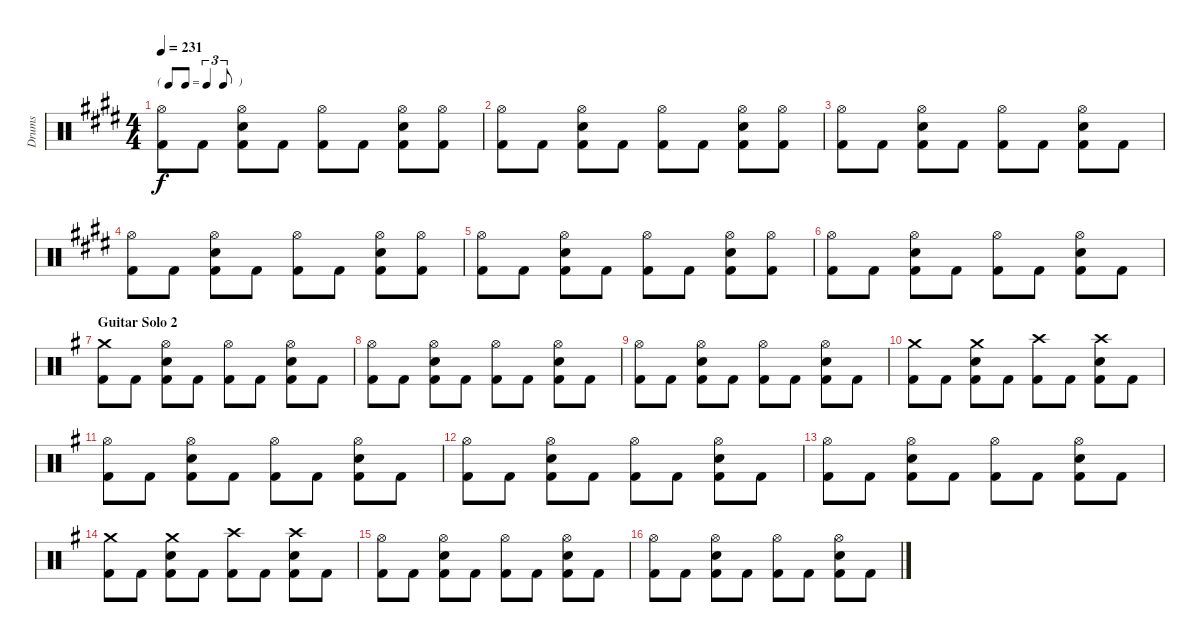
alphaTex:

\track ("Drums" "Drums") {instrument percussion}
\staff {score}
\articulation defaults
\ts (4 4)
\tf triplet8th
\tempo 231
\clef neutral
\ks c#minor
("Hi-Hat (open)" "Kick (hit) 2").8{dy f} "Kick (hit) 2".8 ("Hi-Hat (open)" "Electric Snare (hit)" "Kick (hit) 2").8 "Kick (hit) 2".8 ("Hi-Hat (open)" "Kick (hit) 2").8 "Kick (hit) 2".8 ("Hi-Hat (open)" "Electric Snare (hit)" "Kick (hit) 2").8 ("Hi-Hat (open)" "Kick (hit) 2").8 |
("Hi-Hat (open)" "Kick (hit) 2").8 "Kick (hit) 2".8 ("Hi-Hat (open)" "Electric Snare (hit)" "Kick (hit) 2").8 "Kick (hit) 2".8 ("Hi-Hat (open)" "Kick (hit) 2").8 "Kick (hit) 2".8 ("Hi-Hat (open)" "Electric Snare (hit)" "Kick (hit) 2").8 ("Hi-Hat (open)" "Kick (hit) 2").8 |
("Hi-Hat (open)" "Kick (hit) 2").8 "Kick (hit) 2".8 ("Hi-Hat (open)" "Electric Snare (hit)" "Kick (hit) 2").8 "Kick (hit) 2".8 ("Hi-Hat (open)" "Kick (hit) 2").8 "Kick (hit) 2".8 ("Hi-Hat (open)" "Electric Snare (hit)" "Kick (hit) 2").8 "Kick (hit) 2".8 |
("Hi-Hat (open)" "Kick (hit) 2").8 "Kick (hit) 2".8 ("Hi-Hat (open)" "Electric Snare (hit)" "Kick (hit) 2").8 "Kick (hit) 2".8 ("Hi-Hat (open)" "Kick (hit) 2").8 "Kick (hit) 2".8 ("Hi-Hat (open)" "Electric Snare (hit)" "Kick (hit) 2").8 ("Hi-Hat (open)" "Kick (hit) 2").8 |
("Hi-Hat (open)" "Kick (hit) 2").8 "Kick (hit) 2".8 ("Hi-Hat (open)" "Electric Snare (hit)" "Kick (hit) 2").8 "Kick (hit) 2".8 ("Hi-Hat (open)" "Kick (hit) 2").8 "Kick (hit) 2".8 ("Hi-Hat (open)" "Electric Snare (hit)" "Kick (hit) 2").8 ("Hi-Hat (open)" "Kick (hit) 2").8 |
("Hi-Hat (open)" "Kick (hit) 2").8 "Kick (hit) 2".8 ("Hi-Hat (open)" "Electric Snare (hit)" "Kick (hit) 2").8 "Kick (hit) 2".8 ("Hi-Hat (open)" "Kick (hit) 2").8 "Kick (hit) 2".8 ("Hi-Hat (open)" "Electric Snare (hit)" "Kick (hit) 2").8 "Kick (hit) 2".8 |
\section ("" "Guitar Solo 2")
\ks eminor
("Crash medium (hit)" "Kick (hit) 2").8 "Kick (hit) 2".8 ("Hi-Hat (open)" "Electric Snare (hit)" "Kick (hit) 2").8 "Kick (hit) 2".8 ("Hi-Hat (open)" "Kick (hit) 2").8 "Kick (hit) 2".8 ("Hi-Hat (open)" "Electric Snare (hit)" "Kick (hit) 2").8 "Kick (hit) 2".8 |
("Hi-Hat (open)" "Kick (hit) 2").8 "Kick (hit) 2".8 ("Hi-Hat (open)" "Electric Snare (hit)" "Kick (hit) 2").8 "Kick (hit) 2".8 ("Hi-Hat (open)" "Kick (hit) 2").8 "Kick (hit) 2".8 ("Hi-Hat (open)" "Electric Snare (hit)" "Kick (hit) 2").8 "Kick (hit) 2".8 |
("Hi-Hat (open)" "Kick (hit) 2").8 "Kick (hit) 2".8 ("Hi-Hat (open)" "Electric Snare (hit)" "Kick (hit) 2").8 "Kick (hit) 2".8 ("Hi-Hat (open)" "Kick (hit) 2").8 "Kick (hit) 2".8 ("Hi-Hat (open)" "Electric Snare (hit)" "Kick (hit) 2").8 "Kick (hit) 2".8 |
("Crash medium (hit)" "Kick (hit) 2").8 "Kick (hit) 2".8 ("Crash medium (hit)" "Electric Snare (hit)" "Kick (hit) 2").8 "Kick (hit) 2".8 ("Crash high (hit)" "Kick (hit) 2").8 "Kick (hit) 2".8 ("Crash high (hit)" "Electric Snare (hit)" "Kick (hit) 2").8 "Kick (hit) 2".8 |
("Hi-Hat (open)" "Kick (hit) 2").8 "Kick (hit) 2".8 ("Hi-Hat (open)" "Electric Snare (hit)" "Kick (hit) 2").8 "Kick (hit) 2".8 ("Hi-Hat (open)" "Kick (hit) 2").8 "Kick (hit) 2".8 ("Hi-Hat (open)" "Electric Snare (hit)" "Kick (hit) 2").8 "Kick (hit) 2".8 |
("Hi-Hat (open)" "Kick (hit) 2").8 "Kick (hit) 2".8 ("Hi-Hat (open)" "Electric Snare (hit)" "Kick (hit) 2").8 "Kick (hit) 2".8 ("Hi-Hat (open)" "Kick (hit) 2").8 "Kick (hit) 2".8 ("Hi-Hat (open)" "Electric Snare (hit)" "Kick (hit) 2").8 "Kick (hit) 2".8 |
("Hi-Hat (open)" "Kick (hit) 2").8 "Kick (hit) 2".8 ("Hi-Hat (open)" "Electric Snare (hit)" "Kick (hit) 2").8 "Kick (hit) 2".8 ("Hi-Hat (open)" "Kick (hit) 2").8 "Kick (hit) 2".8 ("Hi-Hat (open)" "Electric Snare (hit)" "Kick (hit) 2").8 "Kick (hit) 2".8 |
("Crash medium (hit)" "Kick (hit) 2").8 "Kick (hit) 2".8 ("Crash medium (hit)" "Electric Snare (hit)" "Kick (hit) 2").8 "Kick (hit) 2".8 ("Crash high (hit)" "Kick (hit) 2").8 "Kick (hit) 2".8 ("Crash high (hit)" "Electric Snare (hit)" "Kick (hit) 2").8 "Kick (hit) 2".8 |
("Hi-Hat (open)" "Kick (hit) 2").8 "Kick (hit) 2".8 ("Hi-Hat (open)" "Electric Snare (hit)" "Kick (hit) 2").8 "Kick (hit) 2".8 ("Hi-Hat (open)" "Kick (hit) 2").8 "Kick (hit) 2".8 ("Hi-Hat (open)" "Electric Snare (hit)" "Kick (hit) 2").8 "Kick (hit) 2".8 |
("Hi-Hat (open)" "Kick (hit) 2").8 "Kick (hit) 2".8 ("Hi-Hat (open)" "Electric Snare (hit)" "Kick (hit) 2").8 "Kick (hit) 2".8 ("Hi-Hat (open)" "Kick (hit) 2").8 "Kick (hit) 2".8 ("Hi-Hat (open)" "Electric Snare (hit)" "Kick (hit) 2").8 "Kick (hit) 2".8
